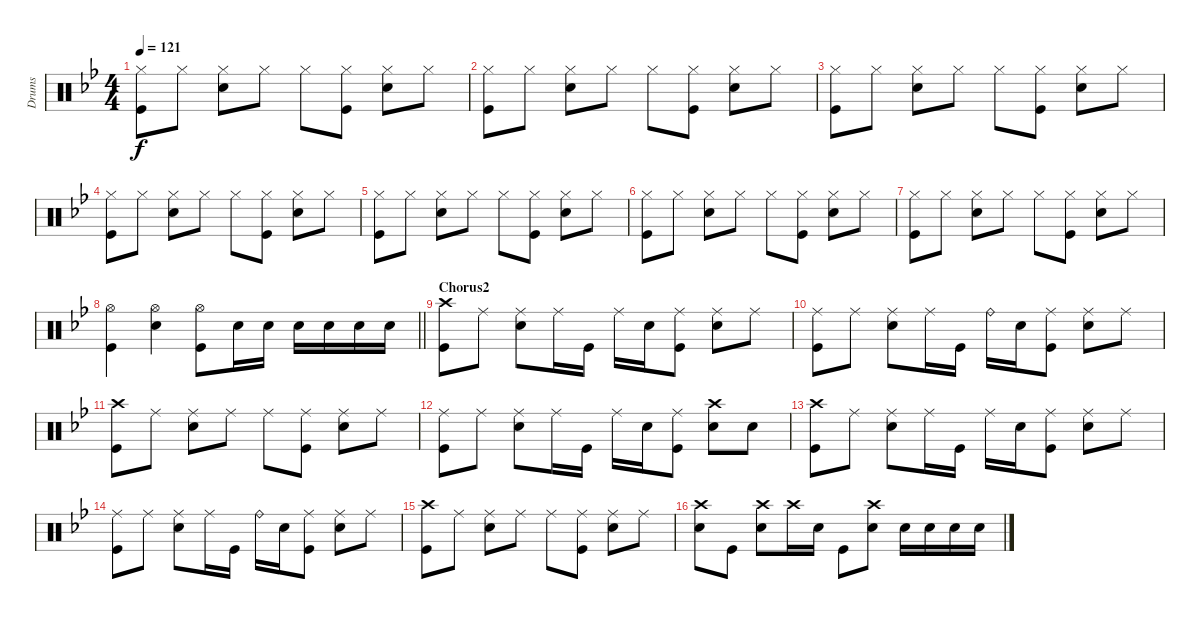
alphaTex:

\track ("Drums" "Drums") {instrument percussion}
\staff {score}
\articulation defaults
\ts (4 4)
\tempo 121
\clef neutral
\ks bb
("Hi-Hat (closed)" "Kick (hit)").8{dy f} "Hi-Hat (closed)".8 ("Hi-Hat (closed)" "Snare (hit) 2").8 "Hi-Hat (closed)".8 "Hi-Hat (closed)".8 ("Hi-Hat (closed)" "Kick (hit)").8 ("Hi-Hat (closed)" "Snare (hit) 2").8 "Hi-Hat (closed)".8 |
("Hi-Hat (closed)" "Kick (hit)").8 "Hi-Hat (closed)".8 ("Hi-Hat (closed)" "Snare (hit) 2").8 "Hi-Hat (closed)".8 "Hi-Hat (closed)".8 ("Hi-Hat (closed)" "Kick (hit)").8 ("Hi-Hat (closed)" "Snare (hit) 2").8 "Hi-Hat (closed)".8 |
("Hi-Hat (closed)" "Kick (hit)").8 "Hi-Hat (closed)".8 ("Hi-Hat (closed)" "Snare (hit) 2").8 "Hi-Hat (closed)".8 "Hi-Hat (closed)".8 ("Hi-Hat (closed)" "Kick (hit)").8 ("Hi-Hat (closed)" "Snare (hit) 2").8 "Hi-Hat (closed)".8 |
("Hi-Hat (closed)" "Kick (hit)").8 "Hi-Hat (closed)".8 ("Hi-Hat (closed)" "Snare (hit) 2").8 "Hi-Hat (closed)".8 "Hi-Hat (closed)".8 ("Hi-Hat (closed)" "Kick (hit)").8 ("Hi-Hat (closed)" "Snare (hit) 2").8 "Hi-Hat (closed)".8 |
("Hi-Hat (closed)" "Kick (hit)").8 "Hi-Hat (closed)".8 ("Hi-Hat (closed)" "Snare (hit) 2").8 "Hi-Hat (closed)".8 "Hi-Hat (closed)".8 ("Hi-Hat (closed)" "Kick (hit)").8 ("Hi-Hat (closed)" "Snare (hit) 2").8 "Hi-Hat (closed)".8 |
("Hi-Hat (closed)" "Kick (hit)").8 "Hi-Hat (closed)".8 ("Hi-Hat (closed)" "Snare (hit) 2").8 "Hi-Hat (closed)".8 "Hi-Hat (closed)".8 ("Hi-Hat (closed)" "Kick (hit)").8 ("Hi-Hat (closed)" "Snare (hit) 2").8 "Hi-Hat (closed)".8 |
("Hi-Hat (closed)" "Kick (hit)").8 "Hi-Hat (closed)".8 ("Hi-Hat (closed)" "Snare (hit) 2").8 "Hi-Hat (closed)".8 "Hi-Hat (closed)".8 ("Hi-Hat (closed)" "Kick (hit)").8 ("Hi-Hat (closed)" "Snare (hit) 2").8 "Hi-Hat (closed)".8 |
\barLineRight lightlight
("Hi-Hat (open)" "Kick (hit)").4 ("Hi-Hat (open)" "Snare (hit) 2").4 ("Hi-Hat (open)" "Kick (hit)").8 "Snare (hit) 2".16 "Snare (hit) 2".16 "Snare (hit) 2".16 "Snare (hit) 2".16 "Snare (hit) 2".16 "Snare (hit) 2".16 |
\section ("" "Chorus2")
("Crash high (hit)" "Kick (hit)").8 "Ride (middle)".8 ("Ride (middle)" "Snare (hit) 2").8 "Ride (middle)".16 "Kick (hit)".16 "Ride (middle)".16 "Snare (hit) 2".16 ("Ride (middle)" "Kick (hit)").8 ("Ride (middle)" "Snare (hit) 2").8 "Ride (middle)".8 |
("Ride (middle)" "Kick (hit)").8 "Ride (middle)".8 ("Ride (middle)" "Snare (hit) 2").8 "Ride (middle)".16 "Kick (hit)".16 "Ride (bell)".16 "Snare (hit) 2".16 ("Ride (middle)" "Kick (hit)").8 ("Ride (middle)" "Snare (hit) 2").8 "Ride (middle)".8 |
("Crash high (hit)" "Kick (hit)").8 "Ride (middle)".8 ("Ride (middle)" "Snare (hit) 2").8 "Ride (middle)".8 "Ride (middle)".8 ("Kick (hit)" "Ride (middle)").8 ("Snare (hit) 2" "Ride (middle)").8 "Ride (middle)".8 |
("Ride (middle)" "Kick (hit)").8 "Ride (middle)".8 ("Ride (middle)" "Snare (hit) 2").8 "Ride (middle)".16 "Kick (hit)".16 "Ride (middle)".16 "Snare (hit) 2".16 ("Ride (middle)" "Kick (hit)").8 ("Crash high (hit)" "Snare (hit) 2").8 "Snare (hit) 2".8 |
("Crash high (hit)" "Kick (hit)").8 "Ride (middle)".8 ("Ride (middle)" "Snare (hit) 2").8 "Ride (middle)".16 "Kick (hit)".16 "Ride (middle)".16 "Snare (hit) 2".16 ("Ride (middle)" "Kick (hit)").8 ("Ride (middle)" "Snare (hit) 2").8 "Ride (middle)".8 |
("Ride (middle)" "Kick (hit)").8 "Ride (middle)".8 ("Ride (middle)" "Snare (hit) 2").8 "Ride (middle)".16 "Kick (hit)".16 "Ride (bell)".16 "Snare (hit) 2".16 ("Ride (middle)" "Kick (hit)").8 ("Ride (middle)" "Snare (hit) 2").8 "Ride (middle)".8 |
("Crash high (hit)" "Kick (hit)").8 "Ride (middle)".8 ("Ride (middle)" "Snare (hit) 2").8 "Ride (middle)".8 "Ride (middle)".8 ("Kick (hit)" "Ride (middle)").8 ("Snare (hit) 2" "Ride (middle)").8 "Ride (middle)".8 |
("Crash high (hit)" "Snare (hit) 2").8 "Kick (hit)".8 ("Crash high (hit)" "Snare (hit) 2").8 "Crash high (hit)".16 "Snare (hit) 2".16 "Kick (hit)".8 ("Snare (hit) 2" "Crash high (hit)").8 "Snare (hit) 2".16 "Snare (hit) 2".16 "Snare (hit) 2".16 "Snare (hit) 2".16
